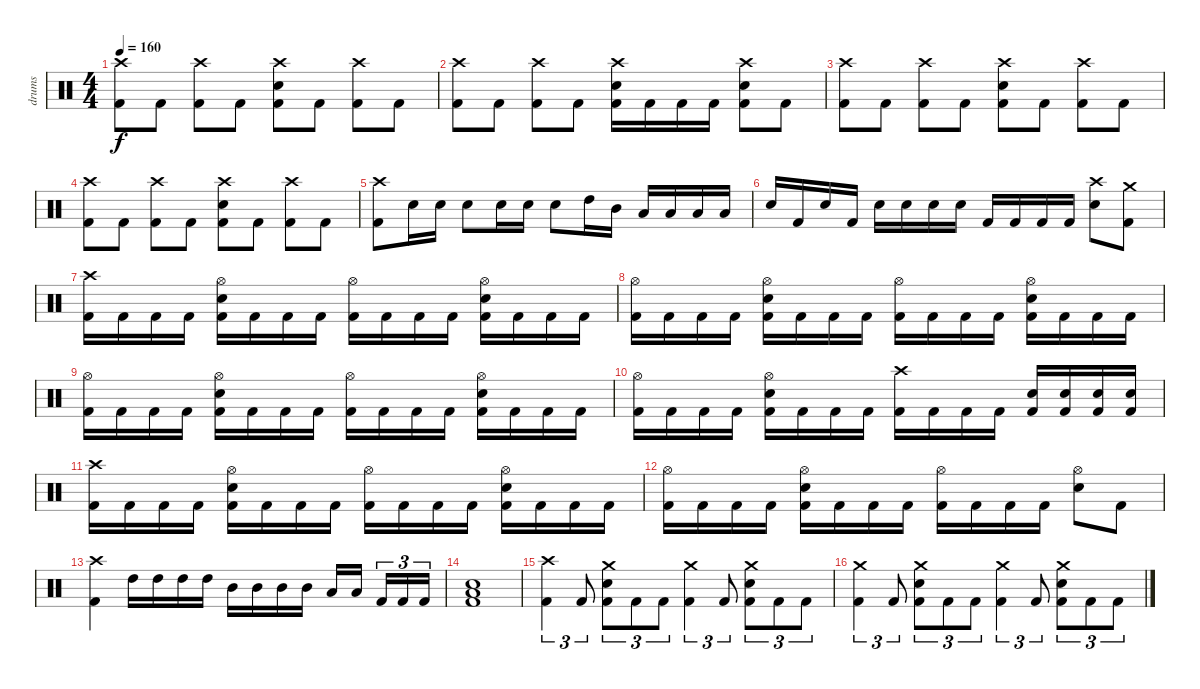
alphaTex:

\track ("drums" "drums") {instrument percussion}
\staff {score}
\articulation defaults
\ts (4 4)
\tempo 160
\clef neutral
\ks c
("Crash high (hit)" "Kick (hit) 2").8{dy f} "Kick (hit) 2".8 ("Crash high (hit)" "Kick (hit) 2").8 "Kick (hit) 2".8 ("Crash high (hit)" "Electric Snare (hit)" "Kick (hit) 2").8 "Kick (hit) 2".8 ("Crash high (hit)" "Kick (hit) 2").8 "Kick (hit) 2".8 |
("Crash high (hit)" "Kick (hit) 2").8 "Kick (hit) 2".8 ("Crash high (hit)" "Kick (hit) 2").8 "Kick (hit) 2".8 ("Crash high (hit)" "Electric Snare (hit)" "Kick (hit) 2").16 "Kick (hit) 2".16 "Kick (hit) 2".16 "Kick (hit) 2".16 ("Crash high (hit)" "Electric Snare (hit)" "Kick (hit) 2").8 "Kick (hit) 2".8 |
("Crash high (hit)" "Kick (hit) 2").8 "Kick (hit) 2".8 ("Crash high (hit)" "Kick (hit) 2").8 "Kick (hit) 2".8 ("Crash high (hit)" "Electric Snare (hit)" "Kick (hit) 2").8 "Kick (hit) 2".8 ("Crash high (hit)" "Kick (hit) 2").8 "Kick (hit) 2".8 |
("Crash high (hit)" "Kick (hit) 2").8 "Kick (hit) 2".8 ("Crash high (hit)" "Kick (hit) 2").8 "Kick (hit) 2".8 ("Crash high (hit)" "Electric Snare (hit)" "Kick (hit) 2").8 "Kick (hit) 2".8 ("Crash high (hit)" "Kick (hit) 2").8 "Kick (hit) 2".8 |
("Crash high (hit)" "Kick (hit) 2").8 "Electric Snare (hit)".16 "Electric Snare (hit)".16 "Electric Snare (hit)".8 "Electric Snare (hit)".16 "Electric Snare (hit)".16 "Electric Snare (hit)".8 "High Tom (hit)".16 "Mid Tom (hit)".16 "Low Tom (hit)".16 "Low Tom (hit)".16 "Low Tom (hit)".16 "Low Tom (hit)".16 |
"Electric Snare (hit)".16 "Kick (hit) 2".16 "Electric Snare (hit)".16 "Kick (hit) 2".16 "Electric Snare (hit)".16 "Electric Snare (hit)".16 "Electric Snare (hit)".16 "Electric Snare (hit)".16 "Kick (hit) 2".16 "Kick (hit) 2".16 "Kick (hit) 2".16 "Kick (hit) 2".16 ("Crash high (hit)" "Electric Snare (hit)").8 ("Crash medium (hit)" "Kick (hit) 2").8 |
("Crash high (hit)" "Kick (hit) 2").16 "Kick (hit) 2".16 "Kick (hit) 2".16 "Kick (hit) 2".16 ("Hi-Hat (open)" "Electric Snare (hit)" "Kick (hit) 2").16 "Kick (hit) 2".16 "Kick (hit) 2".16 "Kick (hit) 2".16 ("Hi-Hat (open)" "Kick (hit) 2").16 "Kick (hit) 2".16 "Kick (hit) 2".16 "Kick (hit) 2".16 ("Hi-Hat (open)" "Electric Snare (hit)" "Kick (hit) 2").16 "Kick (hit) 2".16 "Kick (hit) 2".16 "Kick (hit) 2".16 |
("Hi-Hat (open)" "Kick (hit) 2").16 "Kick (hit) 2".16 "Kick (hit) 2".16 "Kick (hit) 2".16 ("Hi-Hat (open)" "Electric Snare (hit)" "Kick (hit) 2").16 "Kick (hit) 2".16 "Kick (hit) 2".16 "Kick (hit) 2".16 ("Hi-Hat (open)" "Kick (hit) 2").16 "Kick (hit) 2".16 "Kick (hit) 2".16 "Kick (hit) 2".16 ("Hi-Hat (open)" "Electric Snare (hit)" "Kick (hit) 2").16 "Kick (hit) 2".16 "Kick (hit) 2".16 "Kick (hit) 2".16 |
("Hi-Hat (open)" "Kick (hit) 2").16 "Kick (hit) 2".16 "Kick (hit) 2".16 "Kick (hit) 2".16 ("Hi-Hat (open)" "Electric Snare (hit)" "Kick (hit) 2").16 "Kick (hit) 2".16 "Kick (hit) 2".16 "Kick (hit) 2".16 ("Hi-Hat (open)" "Kick (hit) 2").16 "Kick (hit) 2".16 "Kick (hit) 2".16 "Kick (hit) 2".16 ("Hi-Hat (open)" "Electric Snare (hit)" "Kick (hit) 2").16 "Kick (hit) 2".16 "Kick (hit) 2".16 "Kick (hit) 2".16 |
("Hi-Hat (open)" "Kick (hit) 2").16 "Kick (hit) 2".16 "Kick (hit) 2".16 "Kick (hit) 2".16 ("Hi-Hat (open)" "Electric Snare (hit)" "Kick (hit) 2").16 "Kick (hit) 2".16 "Kick (hit) 2".16 "Kick (hit) 2".16 ("Crash high (hit)" "Kick (hit) 2").16 "Kick (hit) 2".16 "Kick (hit) 2".16 "Kick (hit) 2".16 ("Electric Snare (hit)" "Kick (hit) 2").16 ("Electric Snare (hit)" "Kick (hit) 2").16 ("Electric Snare (hit)" "Kick (hit) 2").16 ("Electric Snare (hit)" "Kick (hit) 2").16 |
("Crash high (hit)" "Kick (hit) 2").16 "Kick (hit) 2".16 "Kick (hit) 2".16 "Kick (hit) 2".16 ("Hi-Hat (open)" "Electric Snare (hit)" "Kick (hit) 2").16 "Kick (hit) 2".16 "Kick (hit) 2".16 "Kick (hit) 2".16 ("Hi-Hat (open)" "Kick (hit) 2").16 "Kick (hit) 2".16 "Kick (hit) 2".16 "Kick (hit) 2".16 ("Hi-Hat (open)" "Electric Snare (hit)" "Kick (hit) 2").16 "Kick (hit) 2".16 "Kick (hit) 2".16 "Kick (hit) 2".16 |
("Hi-Hat (open)" "Kick (hit) 2").16 "Kick (hit) 2".16 "Kick (hit) 2".16 "Kick (hit) 2".16 ("Hi-Hat (open)" "Electric Snare (hit)" "Kick (hit) 2").16 "Kick (hit) 2".16 "Kick (hit) 2".16 "Kick (hit) 2".16 ("Hi-Hat (open)" "Kick (hit) 2").16 "Kick (hit) 2".16 "Kick (hit) 2".16 "Kick (hit) 2".16 ("Hi-Hat (open)" "Electric Snare (hit)").8 "Kick (hit) 2".8 |
("Crash high (hit)" "Kick (hit) 2").4 "High Tom (hit)".16 "High Tom (hit)".16 "High Tom (hit)".16 "High Tom (hit)".16 "Mid Tom (hit)".16 "Mid Tom (hit)".16 "Mid Tom (hit)".16 "Mid Tom (hit)".16 "Low Tom (hit)".16 "Low Tom (hit)".16 "Kick (hit) 2".16{tu (3 2)} "Kick (hit) 2".16{tu (3 2)} "Kick (hit) 2".16{tu (3 2)} |
("Electric Snare (hit)" "Low Tom (hit)" "Kick (hit) 2").1 |
("Crash high (hit)" "Kick (hit) 2").4{tu (3 2)} "Kick (hit) 2".8{tu (3 2)} ("Crash medium (hit)" "Electric Snare (hit)" "Kick (hit) 2").8{tu (3 2)} "Kick (hit) 2".8{tu (3 2)} "Kick (hit) 2".8{tu (3 2)} ("Crash medium (hit)" "Kick (hit) 2").4{tu (3 2)} "Kick (hit) 2".8{tu (3 2)} ("Crash medium (hit)" "Electric Snare (hit)" "Kick (hit) 2").8{tu (3 2)} "Kick (hit) 2".8{tu (3 2)} "Kick (hit) 2".8{tu (3 2)} |
("Crash medium (hit)" "Kick (hit) 2").4{tu (3 2)} "Kick (hit) 2".8{tu (3 2)} ("Crash medium (hit)" "Electric Snare (hit)" "Kick (hit) 2").8{tu (3 2)} "Kick (hit) 2".8{tu (3 2)} "Kick (hit) 2".8{tu (3 2)} ("Crash medium (hit)" "Kick (hit) 2").4{tu (3 2)} "Kick (hit) 2".8{tu (3 2)} ("Crash medium (hit)" "Electric Snare (hit)" "Kick (hit) 2").8{tu (3 2)} "Kick (hit) 2".8{tu (3 2)} "Kick (hit) 2".8{tu (3 2)}
